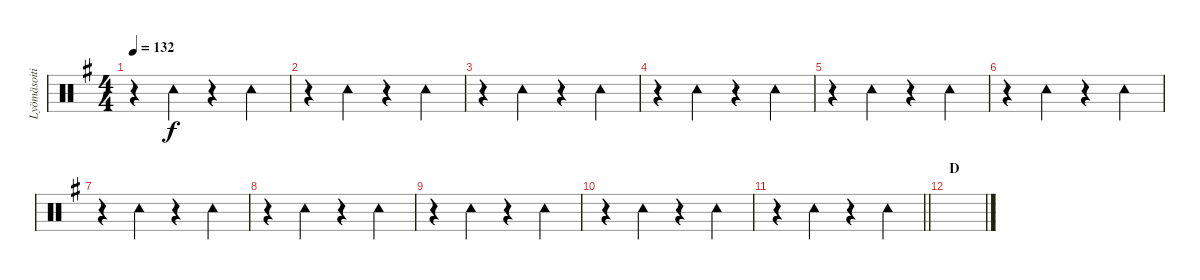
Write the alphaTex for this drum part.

\track ("Lyömäsoitin" "Lyömäsoiti") {instrument percussion}
\staff {score}
\articulation defaults
\ts (4 4)
\tempo 132
\clef neutral
\ks eminor
r.4{dy f} "Tambourine (hit)".4 r.4 "Tambourine (hit)".4 |
r.4 "Tambourine (hit)".4 r.4 "Tambourine (hit)".4 |
r.4 "Tambourine (hit)".4 r.4 "Tambourine (hit)".4 |
r.4 "Tambourine (hit)".4 r.4 "Tambourine (hit)".4 |
r.4 "Tambourine (hit)".4 r.4 "Tambourine (hit)".4 |
r.4 "Tambourine (hit)".4 r.4 "Tambourine (hit)".4 |
r.4 "Tambourine (hit)".4 r.4 "Tambourine (hit)".4 |
r.4 "Tambourine (hit)".4 r.4 "Tambourine (hit)".4 |
r.4 "Tambourine (hit)".4 r.4 "Tambourine (hit)".4 |
r.4 "Tambourine (hit)".4 r.4 "Tambourine (hit)".4 |
\barLineRight lightlight
r.4 "Tambourine (hit)".4 r.4 "Tambourine (hit)".4 |
\section ("" "D")
